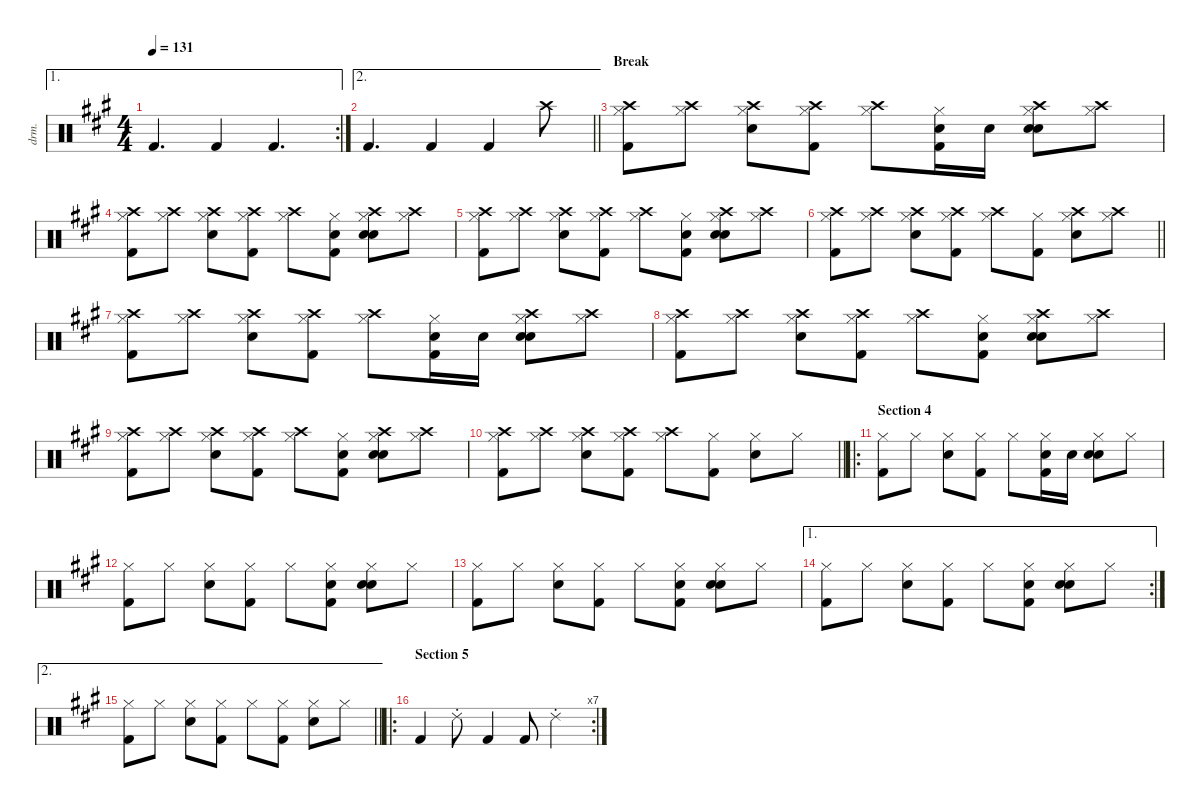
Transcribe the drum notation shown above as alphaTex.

\defaultSystemsLayout 4
\hideDynamics
\bracketExtendMode nobrackets
\otherSystemsTrackNameOrientation horizontal
\track ("Percussion" "drm.") {defaultSystemsLayout 4 instrument percussion}
\staff {score}
\articulation defaults
\ae 1
\rc 2
\ts (4 4)
\tempo 131
\clef neutral
\ks f#minor "Kick (hit) 2"{acc forcenatural}.4{d dy f beam Up} "Kick (hit) 2"{acc forcenatural}.4{beam Up} "Kick (hit) 2"{acc forcenatural}.4{d beam Up}
|
\ae 2
\barLineRight lightlight "Kick (hit) 2"{acc forcenatural}.4{d beam Up} "Kick (hit) 2"{acc forcenatural}.4{beam Up} "Kick (hit) 2"{acc forcenatural}.4{beam Up} "Crash high (hit)"{acc forcenatural}.8{beam Down}
|
\section ("" "Break")
("Crash high (hit)"{acc forcenatural} "Hi-Hat (closed)"{acc forcenatural} "Kick (hit) 2"{acc forcenatural}).8{beam Down} ("Crash high (hit)"{acc forcenatural} "Hi-Hat (closed)"{acc forcenatural}).8{beam Down} ("Crash high (hit)"{acc forcenatural} "Hi-Hat (closed)"{acc forcenatural} "Snare (hit) 2"{acc forcenatural}).8{beam Down} ("Crash high (hit)"{acc forcenatural} "Hi-Hat (closed)"{acc forcenatural} "Kick (hit) 2"{acc forcenatural}).8{beam Down} ("Crash high (hit)"{acc forcenatural} "Hi-Hat (closed)"{acc forcenatural}).8{beam Down} ("Hi-Hat (closed)"{acc forcenatural} "Hand Clap (hit)"{acc forcenatural} "Kick (hit) 2"{acc forcenatural}).16{beam Down} "Hand Clap (hit)"{acc forcenatural}.16{beam Down} ("Crash high (hit)"{acc forcenatural} "Hi-Hat (closed)"{acc forcenatural} "Hand Clap (hit)"{acc forcenatural} "Snare (hit) 2"{acc forcenatural}).8{beam Down} ("Crash high (hit)"{acc forcenatural} "Hi-Hat (closed)"{acc forcenatural}).8{beam Down} |
("Crash high (hit)"{acc forcenatural} "Hi-Hat (closed)"{acc forcenatural} "Kick (hit) 2"{acc forcenatural}).8{beam Down} ("Crash high (hit)"{acc forcenatural} "Hi-Hat (closed)"{acc forcenatural}).8{beam Down} ("Crash high (hit)"{acc forcenatural} "Hi-Hat (closed)"{acc forcenatural} "Snare (hit) 2"{acc forcenatural}).8{beam Down} ("Crash high (hit)"{acc forcenatural} "Hi-Hat (closed)"{acc forcenatural} "Kick (hit) 2"{acc forcenatural}).8{beam Down} ("Crash high (hit)"{acc forcenatural} "Hi-Hat (closed)"{acc forcenatural}).8{beam Down} ("Hi-Hat (closed)"{acc forcenatural} "Hand Clap (hit)"{acc forcenatural} "Kick (hit) 2"{acc forcenatural}).8{beam Down} ("Crash high (hit)"{acc forcenatural} "Hi-Hat (closed)"{acc forcenatural} "Hand Clap (hit)"{acc forcenatural} "Snare (hit) 2"{acc forcenatural}).8{beam Down} ("Crash high (hit)"{acc forcenatural} "Hi-Hat (closed)"{acc forcenatural}).8{beam Down} |
("Crash high (hit)"{acc forcenatural} "Hi-Hat (closed)"{acc forcenatural} "Kick (hit) 2"{acc forcenatural}).8{beam Down} ("Crash high (hit)"{acc forcenatural} "Hi-Hat (closed)"{acc forcenatural}).8{beam Down} ("Crash high (hit)"{acc forcenatural} "Hi-Hat (closed)"{acc forcenatural} "Snare (hit) 2"{acc forcenatural}).8{beam Down} ("Crash high (hit)"{acc forcenatural} "Hi-Hat (closed)"{acc forcenatural} "Kick (hit) 2"{acc forcenatural}).8{beam Down} ("Crash high (hit)"{acc forcenatural} "Hi-Hat (closed)"{acc forcenatural}).8{beam Down} ("Hi-Hat (closed)"{acc forcenatural} "Hand Clap (hit)"{acc forcenatural} "Kick (hit) 2"{acc forcenatural}).8{beam Down} ("Crash high (hit)"{acc forcenatural} "Hi-Hat (closed)"{acc forcenatural} "Hand Clap (hit)"{acc forcenatural} "Snare (hit) 2"{acc forcenatural}).8{beam Down} ("Crash high (hit)"{acc forcenatural} "Hi-Hat (closed)"{acc forcenatural}).8{beam Down} |
\barLineRight lightlight
("Crash high (hit)"{acc forcenatural} "Hi-Hat (closed)"{acc forcenatural} "Kick (hit) 2"{acc forcenatural}).8{beam Down} ("Crash high (hit)"{acc forcenatural} "Hi-Hat (closed)"{acc forcenatural}).8{beam Down} ("Crash high (hit)"{acc forcenatural} "Hi-Hat (closed)"{acc forcenatural} "Snare (hit) 2"{acc forcenatural}).8{beam Down} ("Crash high (hit)"{acc forcenatural} "Hi-Hat (closed)"{acc forcenatural} "Kick (hit) 2"{acc forcenatural}).8{beam Down} ("Crash high (hit)"{acc forcenatural} "Hi-Hat (closed)"{acc forcenatural}).8{beam Down} ("Hi-Hat (closed)"{acc forcenatural} "Kick (hit) 2"{acc forcenatural}).8{beam Down} ("Crash high (hit)"{acc forcenatural} "Hi-Hat (closed)"{acc forcenatural} "Snare (hit) 2"{acc forcenatural}).8{beam Down} ("Crash high (hit)"{acc forcenatural} "Hi-Hat (closed)"{acc forcenatural}).8{beam Down} |
("Crash high (hit)"{acc forcenatural} "Hi-Hat (closed)"{acc forcenatural} "Kick (hit) 2"{acc forcenatural}).8{beam Down} ("Crash high (hit)"{acc forcenatural} "Hi-Hat (closed)"{acc forcenatural}).8{beam Down} ("Crash high (hit)"{acc forcenatural} "Hi-Hat (closed)"{acc forcenatural} "Snare (hit) 2"{acc forcenatural}).8{beam Down} ("Crash high (hit)"{acc forcenatural} "Hi-Hat (closed)"{acc forcenatural} "Kick (hit) 2"{acc forcenatural}).8{beam Down} ("Crash high (hit)"{acc forcenatural} "Hi-Hat (closed)"{acc forcenatural}).8{beam Down} ("Hi-Hat (closed)"{acc forcenatural} "Hand Clap (hit)"{acc forcenatural} "Kick (hit) 2"{acc forcenatural}).16{beam Down} "Hand Clap (hit)"{acc forcenatural}.16{beam Down} ("Crash high (hit)"{acc forcenatural} "Hi-Hat (closed)"{acc forcenatural} "Hand Clap (hit)"{acc forcenatural} "Snare (hit) 2"{acc forcenatural}).8{beam Down} ("Crash high (hit)"{acc forcenatural} "Hi-Hat (closed)"{acc forcenatural}).8{beam Down} |
("Crash high (hit)"{acc forcenatural} "Hi-Hat (closed)"{acc forcenatural} "Kick (hit) 2"{acc forcenatural}).8{beam Down} ("Crash high (hit)"{acc forcenatural} "Hi-Hat (closed)"{acc forcenatural}).8{beam Down} ("Crash high (hit)"{acc forcenatural} "Hi-Hat (closed)"{acc forcenatural} "Snare (hit) 2"{acc forcenatural}).8{beam Down} ("Crash high (hit)"{acc forcenatural} "Hi-Hat (closed)"{acc forcenatural} "Kick (hit) 2"{acc forcenatural}).8{beam Down} ("Crash high (hit)"{acc forcenatural} "Hi-Hat (closed)"{acc forcenatural}).8{beam Down} ("Hi-Hat (closed)"{acc forcenatural} "Hand Clap (hit)"{acc forcenatural} "Kick (hit) 2"{acc forcenatural}).8{beam Down} ("Crash high (hit)"{acc forcenatural} "Hi-Hat (closed)"{acc forcenatural} "Hand Clap (hit)"{acc forcenatural} "Snare (hit) 2"{acc forcenatural}).8{beam Down} ("Crash high (hit)"{acc forcenatural} "Hi-Hat (closed)"{acc forcenatural}).8{beam Down} |
("Crash high (hit)"{acc forcenatural} "Hi-Hat (closed)"{acc forcenatural} "Kick (hit) 2"{acc forcenatural}).8{beam Down} ("Crash high (hit)"{acc forcenatural} "Hi-Hat (closed)"{acc forcenatural}).8{beam Down} ("Crash high (hit)"{acc forcenatural} "Hi-Hat (closed)"{acc forcenatural} "Snare (hit) 2"{acc forcenatural}).8{beam Down} ("Crash high (hit)"{acc forcenatural} "Hi-Hat (closed)"{acc forcenatural} "Kick (hit) 2"{acc forcenatural}).8{beam Down} ("Crash high (hit)"{acc forcenatural} "Hi-Hat (closed)"{acc forcenatural}).8{beam Down} ("Hi-Hat (closed)"{acc forcenatural} "Hand Clap (hit)"{acc forcenatural} "Kick (hit) 2"{acc forcenatural}).8{beam Down} ("Crash high (hit)"{acc forcenatural} "Hi-Hat (closed)"{acc forcenatural} "Hand Clap (hit)"{acc forcenatural} "Snare (hit) 2"{acc forcenatural}).8{beam Down} ("Crash high (hit)"{acc forcenatural} "Hi-Hat (closed)"{acc forcenatural}).8{beam Down} |
\barLineRight lightlight
("Crash high (hit)"{acc forcenatural} "Hi-Hat (closed)"{acc forcenatural} "Kick (hit) 2"{acc forcenatural}).8{beam Down} ("Crash high (hit)"{acc forcenatural} "Hi-Hat (closed)"{acc forcenatural}).8{beam Down} ("Crash high (hit)"{acc forcenatural} "Hi-Hat (closed)"{acc forcenatural} "Snare (hit) 2"{acc forcenatural}).8{beam Down} ("Crash high (hit)"{acc forcenatural} "Hi-Hat (closed)"{acc forcenatural} "Kick (hit) 2"{acc forcenatural}).8{beam Down} ("Crash high (hit)"{acc forcenatural} "Hi-Hat (closed)"{acc forcenatural}).8{beam Down} ("Hi-Hat (closed)"{acc forcenatural} "Kick (hit) 2"{acc forcenatural}).8{beam Down} ("Hi-Hat (closed)"{acc forcenatural} "Snare (hit) 2"{acc forcenatural}).8{beam Down} "Hi-Hat (closed)"{acc forcenatural}.8{beam Down} |
\ro
\section ("" "Section 4")
("Hi-Hat (closed)"{acc forcenatural} "Kick (hit) 2"{acc forcenatural}).8{beam Down} "Hi-Hat (closed)"{acc forcenatural}.8{beam Down} ("Hi-Hat (closed)"{acc forcenatural} "Snare (hit) 2"{acc forcenatural}).8{beam Down} ("Hi-Hat (closed)"{acc forcenatural} "Kick (hit) 2"{acc forcenatural}).8{beam Down} "Hi-Hat (closed)"{acc forcenatural}.8{beam Down} ("Hi-Hat (closed)"{acc forcenatural} "Hand Clap (hit)"{acc forcenatural} "Kick (hit) 2"{acc forcenatural}).16{beam Down} "Hand Clap (hit)"{acc forcenatural}.16{beam Down} ("Hi-Hat (closed)"{acc forcenatural} "Hand Clap (hit)"{acc forcenatural} "Snare (hit) 2"{acc forcenatural}).8{beam Down} "Hi-Hat (closed)"{acc forcenatural}.8{beam Down} |
("Hi-Hat (closed)"{acc forcenatural} "Kick (hit) 2"{acc forcenatural}).8{beam Down} "Hi-Hat (closed)"{acc forcenatural}.8{beam Down} ("Hi-Hat (closed)"{acc forcenatural} "Snare (hit) 2"{acc forcenatural}).8{beam Down} ("Hi-Hat (closed)"{acc forcenatural} "Kick (hit) 2"{acc forcenatural}).8{beam Down} "Hi-Hat (closed)"{acc forcenatural}.8{beam Down} ("Hi-Hat (closed)"{acc forcenatural} "Hand Clap (hit)"{acc forcenatural} "Kick (hit) 2"{acc forcenatural}).8{beam Down} ("Hi-Hat (closed)"{acc forcenatural} "Hand Clap (hit)"{acc forcenatural} "Snare (hit) 2"{acc forcenatural}).8{beam Down} "Hi-Hat (closed)"{acc forcenatural}.8{beam Down} |
("Hi-Hat (closed)"{acc forcenatural} "Kick (hit) 2"{acc forcenatural}).8{beam Down} "Hi-Hat (closed)"{acc forcenatural}.8{beam Down} ("Hi-Hat (closed)"{acc forcenatural} "Snare (hit) 2"{acc forcenatural}).8{beam Down} ("Hi-Hat (closed)"{acc forcenatural} "Kick (hit) 2"{acc forcenatural}).8{beam Down} "Hi-Hat (closed)"{acc forcenatural}.8{beam Down} ("Hi-Hat (closed)"{acc forcenatural} "Hand Clap (hit)"{acc forcenatural} "Kick (hit) 2"{acc forcenatural}).8{beam Down} ("Hi-Hat (closed)"{acc forcenatural} "Hand Clap (hit)"{acc forcenatural} "Snare (hit) 2"{acc forcenatural}).8{beam Down} "Hi-Hat (closed)"{acc forcenatural}.8{beam Down} |
\ae 1
\rc 2
("Hi-Hat (closed)"{acc forcenatural} "Kick (hit) 2"{acc forcenatural}).8{beam Down} "Hi-Hat (closed)"{acc forcenatural}.8{beam Down} ("Hi-Hat (closed)"{acc forcenatural} "Snare (hit) 2"{acc forcenatural}).8{beam Down} ("Hi-Hat (closed)"{acc forcenatural} "Kick (hit) 2"{acc forcenatural}).8{beam Down} "Hi-Hat (closed)"{acc forcenatural}.8{beam Down} ("Hi-Hat (closed)"{acc forcenatural} "Hand Clap (hit)"{acc forcenatural} "Kick (hit) 2"{acc forcenatural}).8{beam Down} ("Hi-Hat (closed)"{acc forcenatural} "Hand Clap (hit)"{acc forcenatural} "Snare (hit) 2"{acc forcenatural}).8{beam Down} "Hi-Hat (closed)"{acc forcenatural}.8{beam Down} |
\ae 2
\barLineRight lightlight
("Hi-Hat (closed)"{acc forcenatural} "Kick (hit) 2"{acc forcenatural}).8{beam Down} "Hi-Hat (closed)"{acc forcenatural}.8{beam Down} ("Hi-Hat (closed)"{acc forcenatural} "Snare (hit) 2"{acc forcenatural}).8{beam Down} ("Hi-Hat (closed)"{acc forcenatural} "Kick (hit) 2"{acc forcenatural}).8{beam Down} "Hi-Hat (closed)"{acc forcenatural}.8{beam Down} ("Hi-Hat (closed)"{acc forcenatural} "Kick (hit) 2"{acc forcenatural}).8{beam Down} ("Hi-Hat (closed)"{acc forcenatural} "Snare (hit) 2"{acc forcenatural}).8{beam Down} "Hi-Hat (closed)"{acc forcenatural}.8{beam Down} |
\ro
\rc 7
\section ("" "Section 5")
"Kick (hit) 2"{acc forcenatural}.4{beam Up} "Ride (choke) 2"{acc forcenatural}.8{beam Down} "Kick (hit) 2"{acc forcenatural}.4{beam Up} "Kick (hit) 2"{acc forcenatural}.8{beam Up} "Ride (choke) 2"{acc forcenatural}.4{beam Down}
